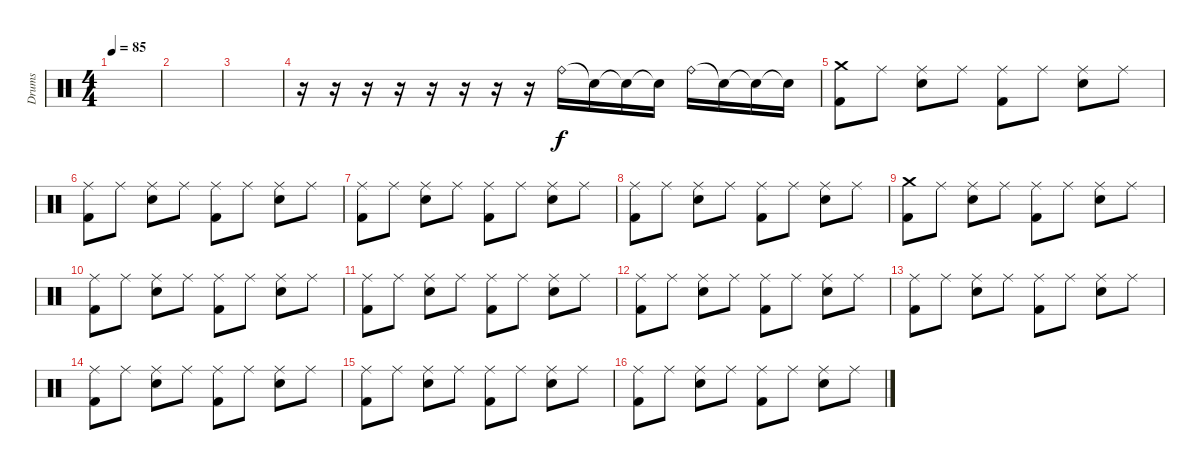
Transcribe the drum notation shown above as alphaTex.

\track ("Drums" "Drums") {instrument percussion}
\staff {score}
\articulation defaults
\ts (4 4)
\tempo 85
\clef neutral
\ks c
|
|
|
r.16 r.16 r.16 r.16 r.16 r.16 r.16 r.16 "Ride (bell)".16 "Snare (hit)"{t}.16 "Snare (hit)"{t}.16 "Snare (hit)"{t}.16 "Ride (bell)".16 "Snare (hit)"{t}.16 "Snare (hit)"{t}.16 "Snare (hit)"{t}.16 |
("Crash medium (hit)" "Kick (hit) 2").8 "Ride (middle)".8 ("Ride (middle)" "Snare (hit) 2").8 "Ride (middle)".8 ("Ride (middle)" "Kick (hit) 2").8 "Ride (middle)".8 ("Ride (middle)" "Snare (hit) 2").8 "Ride (middle)".8 |
("Ride (middle)" "Kick (hit) 2").8 "Ride (middle)".8 ("Ride (middle)" "Snare (hit) 2").8 "Ride (middle)".8 ("Ride (middle)" "Kick (hit) 2").8 "Ride (middle)".8 ("Ride (middle)" "Snare (hit) 2").8 "Ride (middle)".8 |
("Ride (middle)" "Kick (hit) 2").8 "Ride (middle)".8 ("Ride (middle)" "Snare (hit) 2").8 "Ride (middle)".8 ("Ride (middle)" "Kick (hit) 2").8 "Ride (middle)".8 ("Ride (middle)" "Snare (hit) 2").8 "Ride (middle)".8 |
("Ride (middle)" "Kick (hit) 2").8 "Ride (middle)".8 ("Ride (middle)" "Snare (hit) 2").8 "Ride (middle)".8 ("Ride (middle)" "Kick (hit) 2").8 "Ride (middle)".8 ("Ride (middle)" "Snare (hit) 2").8 "Ride (middle)".8 |
("Crash medium (hit)" "Kick (hit) 2").8 "Ride (middle)".8 ("Ride (middle)" "Snare (hit) 2").8 "Ride (middle)".8 ("Ride (middle)" "Kick (hit) 2").8 "Ride (middle)".8 ("Ride (middle)" "Snare (hit) 2").8 "Ride (middle)".8 |
("Ride (middle)" "Kick (hit) 2").8 "Ride (middle)".8 ("Ride (middle)" "Snare (hit) 2").8 "Ride (middle)".8 ("Ride (middle)" "Kick (hit) 2").8 "Ride (middle)".8 ("Ride (middle)" "Snare (hit) 2").8 "Ride (middle)".8 |
("Ride (middle)" "Kick (hit) 2").8 "Ride (middle)".8 ("Ride (middle)" "Snare (hit) 2").8 "Ride (middle)".8 ("Ride (middle)" "Kick (hit) 2").8 "Ride (middle)".8 ("Ride (middle)" "Snare (hit) 2").8 "Ride (middle)".8 |
("Ride (middle)" "Kick (hit) 2").8 "Ride (middle)".8 ("Ride (middle)" "Snare (hit) 2").8 "Ride (middle)".8 ("Ride (middle)" "Kick (hit) 2").8 "Ride (middle)".8 ("Ride (middle)" "Snare (hit) 2").8 "Ride (middle)".8 |
("Ride (middle)" "Kick (hit) 2").8 "Ride (middle)".8 ("Ride (middle)" "Snare (hit) 2").8 "Ride (middle)".8 ("Ride (middle)" "Kick (hit) 2").8 "Ride (middle)".8 ("Ride (middle)" "Snare (hit) 2").8 "Ride (middle)".8 |
("Ride (middle)" "Kick (hit) 2").8 "Ride (middle)".8 ("Ride (middle)" "Snare (hit) 2").8 "Ride (middle)".8 ("Ride (middle)" "Kick (hit) 2").8 "Ride (middle)".8 ("Ride (middle)" "Snare (hit) 2").8 "Ride (middle)".8 |
("Ride (middle)" "Kick (hit) 2").8 "Ride (middle)".8 ("Ride (middle)" "Snare (hit) 2").8 "Ride (middle)".8 ("Ride (middle)" "Kick (hit) 2").8 "Ride (middle)".8 ("Ride (middle)" "Snare (hit) 2").8 "Ride (middle)".8 |
("Ride (middle)" "Kick (hit) 2").8 "Ride (middle)".8 ("Ride (middle)" "Snare (hit) 2").8 "Ride (middle)".8 ("Ride (middle)" "Kick (hit) 2").8 "Ride (middle)".8 ("Ride (middle)" "Snare (hit) 2").8 "Ride (middle)".8
